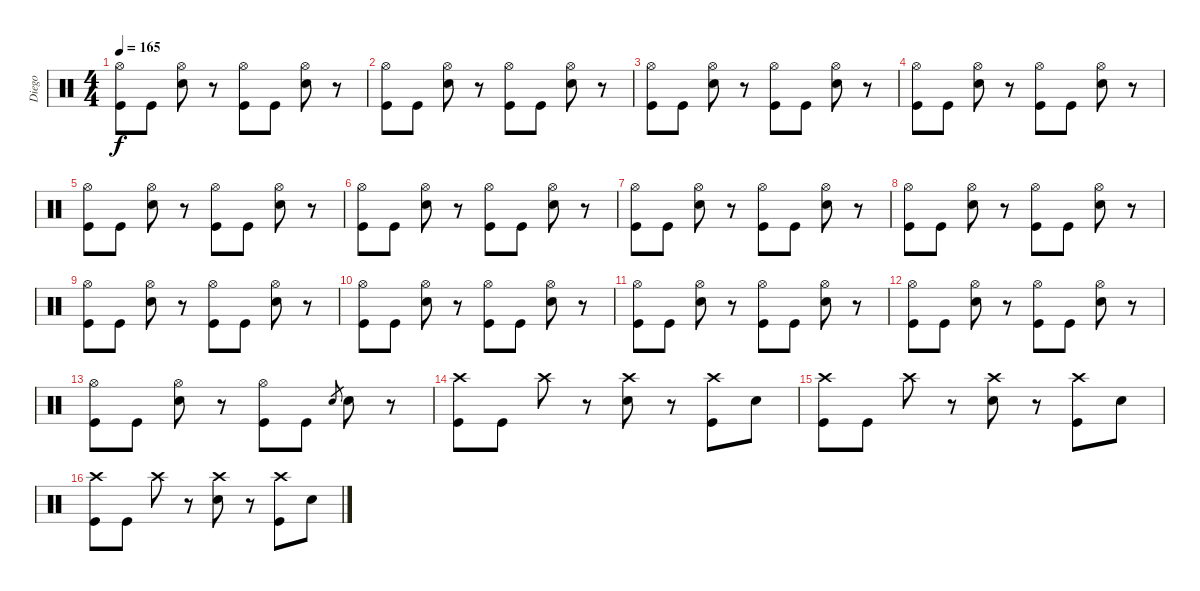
\track ("Diego" "Diego") {instrument percussion}
\staff {score}
\articulation defaults
\ts (4 4)
\tempo 165
\clef neutral
\ks c
("Hi-Hat (open)" "Kick (hit)").8{dy f} "Kick (hit)".8 ("Hi-Hat (open)" "Snare (hit) 2").8 r.8 ("Hi-Hat (open)" "Kick (hit)").8 "Kick (hit)".8 ("Hi-Hat (open)" "Snare (hit) 2").8 r.8 |
("Hi-Hat (open)" "Kick (hit)").8 "Kick (hit)".8 ("Hi-Hat (open)" "Snare (hit) 2").8 r.8 ("Hi-Hat (open)" "Kick (hit)").8 "Kick (hit)".8 ("Hi-Hat (open)" "Snare (hit) 2").8 r.8 |
("Hi-Hat (open)" "Kick (hit)").8 "Kick (hit)".8 ("Hi-Hat (open)" "Snare (hit) 2").8 r.8 ("Hi-Hat (open)" "Kick (hit)").8 "Kick (hit)".8 ("Hi-Hat (open)" "Snare (hit) 2").8 r.8 |
("Hi-Hat (open)" "Kick (hit)").8 "Kick (hit)".8 ("Hi-Hat (open)" "Snare (hit) 2").8 r.8 ("Hi-Hat (open)" "Kick (hit)").8 "Kick (hit)".8 ("Hi-Hat (open)" "Snare (hit) 2").8 r.8 |
("Hi-Hat (open)" "Kick (hit)").8 "Kick (hit)".8 ("Hi-Hat (open)" "Snare (hit) 2").8 r.8 ("Hi-Hat (open)" "Kick (hit)").8 "Kick (hit)".8 ("Hi-Hat (open)" "Snare (hit) 2").8 r.8 |
("Hi-Hat (open)" "Kick (hit)").8 "Kick (hit)".8 ("Hi-Hat (open)" "Snare (hit) 2").8 r.8 ("Hi-Hat (open)" "Kick (hit)").8 "Kick (hit)".8 ("Hi-Hat (open)" "Snare (hit) 2").8 r.8 |
("Hi-Hat (open)" "Kick (hit)").8 "Kick (hit)".8 ("Hi-Hat (open)" "Snare (hit) 2").8 r.8 ("Hi-Hat (open)" "Kick (hit)").8 "Kick (hit)".8 ("Hi-Hat (open)" "Snare (hit) 2").8 r.8 |
("Hi-Hat (open)" "Kick (hit)").8 "Kick (hit)".8 ("Hi-Hat (open)" "Snare (hit) 2").8 r.8 ("Hi-Hat (open)" "Kick (hit)").8 "Kick (hit)".8 ("Hi-Hat (open)" "Snare (hit) 2").8 r.8 |
("Hi-Hat (open)" "Kick (hit)").8 "Kick (hit)".8 ("Hi-Hat (open)" "Snare (hit) 2").8 r.8 ("Hi-Hat (open)" "Kick (hit)").8 "Kick (hit)".8 ("Hi-Hat (open)" "Snare (hit) 2").8 r.8 |
("Hi-Hat (open)" "Kick (hit)").8 "Kick (hit)".8 ("Hi-Hat (open)" "Snare (hit) 2").8 r.8 ("Hi-Hat (open)" "Kick (hit)").8 "Kick (hit)".8 ("Hi-Hat (open)" "Snare (hit) 2").8 r.8 |
("Hi-Hat (open)" "Kick (hit)").8 "Kick (hit)".8 ("Hi-Hat (open)" "Snare (hit) 2").8 r.8 ("Hi-Hat (open)" "Kick (hit)").8 "Kick (hit)".8 ("Hi-Hat (open)" "Snare (hit) 2").8 r.8 |
("Hi-Hat (open)" "Kick (hit)").8 "Kick (hit)".8 ("Hi-Hat (open)" "Snare (hit) 2").8 r.8 ("Hi-Hat (open)" "Kick (hit)").8 "Kick (hit)".8 ("Hi-Hat (open)" "Snare (hit) 2").8 r.8 |
("Hi-Hat (open)" "Kick (hit)").8 "Kick (hit)".8 ("Hi-Hat (open)" "Snare (hit) 2").8 r.8 ("Hi-Hat (open)" "Kick (hit)").8 "Kick (hit)".8 "Snare (hit) 2".8{gr} "Snare (hit) 2".8 r.8 |
("Crash high (hit)" "Kick (hit)").8 "Kick (hit)".8 "Crash high (hit)".8 r.8 ("Crash high (hit)" "Snare (hit) 2").8 r.8 ("Crash high (hit)" "Kick (hit)").8 "Snare (hit) 2".8 |
("Crash high (hit)" "Kick (hit)").8 "Kick (hit)".8 "Crash high (hit)".8 r.8 ("Crash high (hit)" "Snare (hit) 2").8 r.8 ("Crash high (hit)" "Kick (hit)").8 "Snare (hit) 2".8 |
("Crash high (hit)" "Kick (hit)").8 "Kick (hit)".8 "Crash high (hit)".8 r.8 ("Crash high (hit)" "Snare (hit) 2").8 r.8 ("Crash high (hit)" "Kick (hit)").8 "Snare (hit) 2".8
